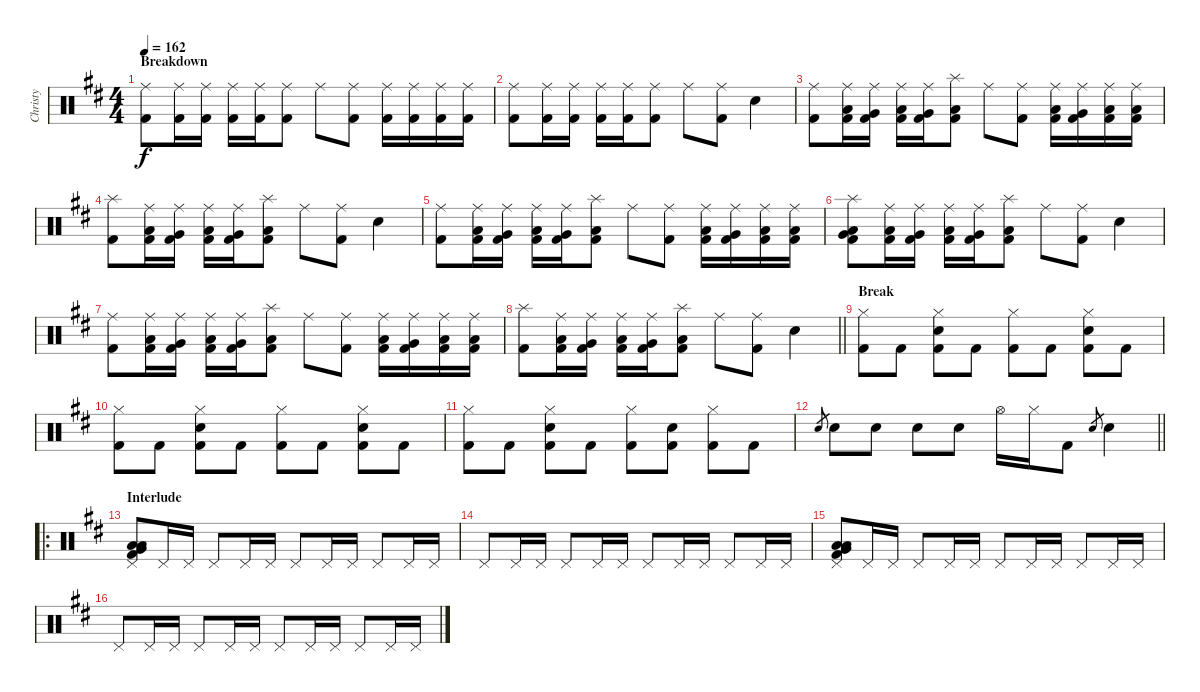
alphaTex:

\track ("Christy" "Christy") {instrument percussion}
\staff {score}
\articulation defaults
\ts (4 4)
\section ("" "Breakdown")
\tempo 162
\clef neutral
\ks d
("Ride (middle)" "Kick (hit) 2").8{dy f} ("Ride (middle)" "Kick (hit) 2").16 ("Ride (middle)" "Kick (hit) 2").16 ("Ride (middle)" "Kick (hit) 2").16 ("Ride (middle)" "Kick (hit) 2").16 ("Ride (middle)" "Kick (hit) 2").8 "Ride (middle)".8 ("Ride (middle)" "Kick (hit) 2").8 ("Ride (middle)" "Kick (hit) 2").16 ("Ride (middle)" "Kick (hit) 2").16 ("Ride (middle)" "Kick (hit) 2").16 ("Ride (middle)" "Kick (hit) 2").16 |
("Ride (middle)" "Kick (hit) 2").8 ("Ride (middle)" "Kick (hit) 2").16 ("Ride (middle)" "Kick (hit) 2").16 ("Ride (middle)" "Kick (hit) 2").16 ("Ride (middle)" "Kick (hit) 2").16 ("Ride (middle)" "Kick (hit) 2").8 "Ride (middle)".8 ("Ride (middle)" "Kick (hit) 2").8 "Snare (hit) 2".4 |
("Ride (middle)" "Kick (hit) 2").8 ("Ride (middle)" "Low Tom (hit)" "Kick (hit) 2").16 ("Ride (middle)" "Very Low Tom (hit)" "Kick (hit) 2").16 ("Ride (middle)" "Low Tom (hit)" "Kick (hit) 2").16 ("Ride (middle)" "Very Low Tom (hit)" "Kick (hit) 2").16 ("Splash (hit)" "Low Floor Tom (hit)" "Kick (hit) 2").8 "Ride (middle)".8 ("Ride (middle)" "Kick (hit) 2").8 ("Ride (middle)" "Low Tom (hit)" "Kick (hit) 2").16 ("Ride (middle)" "Very Low Tom (hit)" "Kick (hit) 2").16 ("Ride (middle)" "Low Tom (hit)" "Kick (hit) 2").16 ("Ride (middle)" "Low Floor Tom (hit)" "Kick (hit) 2").16 |
("Splash (hit)" "Kick (hit) 2").8 ("Ride (middle)" "Low Tom (hit)" "Kick (hit) 2").16 ("Ride (middle)" "Very Low Tom (hit)" "Kick (hit) 2").16 ("Ride (middle)" "Low Tom (hit)" "Kick (hit) 2").16 ("Ride (middle)" "Very Low Tom (hit)" "Kick (hit) 2").16 ("Splash (hit)" "Low Floor Tom (hit)" "Kick (hit) 2").8 "Ride (middle)".8 ("Ride (middle)" "Kick (hit) 2").8 "Snare (hit) 2".4 |
("Ride (middle)" "Kick (hit) 2").8 ("Ride (middle)" "Low Tom (hit)" "Kick (hit) 2").16 ("Ride (middle)" "Very Low Tom (hit)" "Kick (hit) 2").16 ("Ride (middle)" "Low Tom (hit)" "Kick (hit) 2").16 ("Ride (middle)" "Very Low Tom (hit)" "Kick (hit) 2").16 ("Splash (hit)" "Low Floor Tom (hit)" "Kick (hit) 2").8 "Ride (middle)".8 ("Ride (middle)" "Kick (hit) 2").8 ("Ride (middle)" "Low Tom (hit)" "Kick (hit) 2").16 ("Ride (middle)" "Very Low Tom (hit)" "Kick (hit) 2").16 ("Ride (middle)" "Low Tom (hit)" "Kick (hit) 2").16 ("Ride (middle)" "Low Floor Tom (hit)" "Kick (hit) 2").16 |
("Splash (hit)" "Very Low Tom (hit)" "Low Tom (hit)" "Kick (hit) 2").8 ("Ride (middle)" "Low Tom (hit)" "Kick (hit) 2").16 ("Ride (middle)" "Very Low Tom (hit)" "Kick (hit) 2").16 ("Ride (middle)" "Low Tom (hit)" "Kick (hit) 2").16 ("Ride (middle)" "Very Low Tom (hit)" "Kick (hit) 2").16 ("Splash (hit)" "Low Floor Tom (hit)" "Kick (hit) 2").8 "Ride (middle)".8 ("Ride (middle)" "Kick (hit) 2").8 "Snare (hit) 2".4 |
("Ride (middle)" "Kick (hit) 2").8 ("Ride (middle)" "Low Tom (hit)" "Kick (hit) 2").16 ("Ride (middle)" "Very Low Tom (hit)" "Kick (hit) 2").16 ("Ride (middle)" "Low Tom (hit)" "Kick (hit) 2").16 ("Ride (middle)" "Very Low Tom (hit)" "Kick (hit) 2").16 ("Splash (hit)" "Low Floor Tom (hit)" "Kick (hit) 2").8 "Ride (middle)".8 ("Ride (middle)" "Kick (hit) 2").8 ("Ride (middle)" "Low Tom (hit)" "Kick (hit) 2").16 ("Ride (middle)" "Very Low Tom (hit)" "Kick (hit) 2").16 ("Ride (middle)" "Low Tom (hit)" "Kick (hit) 2").16 ("Ride (middle)" "Low Floor Tom (hit)" "Kick (hit) 2").16 |
\barLineRight lightlight
("Splash (hit)" "Kick (hit) 2").8 ("Ride (middle)" "Low Tom (hit)" "Kick (hit) 2").16 ("Ride (middle)" "Very Low Tom (hit)" "Kick (hit) 2").16 ("Ride (middle)" "Low Tom (hit)" "Kick (hit) 2").16 ("Ride (middle)" "Very Low Tom (hit)" "Kick (hit) 2").16 ("Splash (hit)" "Low Floor Tom (hit)" "Kick (hit) 2").8 "Ride (middle)".8 ("Ride (middle)" "Kick (hit) 2").8 "Snare (hit) 2".4 |
\section ("" "Break")
("Hi-Hat (closed)" "Kick (hit) 2").8 "Kick (hit) 2".8 ("Hi-Hat (closed)" "Snare (hit) 2" "Kick (hit) 2").8 "Kick (hit) 2".8 ("Hi-Hat (closed)" "Kick (hit) 2").8 "Kick (hit) 2".8 ("Hi-Hat (closed)" "Snare (hit) 2" "Kick (hit) 2").8 "Kick (hit) 2".8 |
("Hi-Hat (closed)" "Kick (hit) 2").8 "Kick (hit) 2".8 ("Hi-Hat (closed)" "Snare (hit) 2" "Kick (hit) 2").8 "Kick (hit) 2".8 ("Hi-Hat (closed)" "Kick (hit) 2").8 "Kick (hit) 2".8 ("Hi-Hat (closed)" "Snare (hit) 2" "Kick (hit) 2").8 "Kick (hit) 2".8 |
("Hi-Hat (closed)" "Kick (hit) 2").8 "Kick (hit) 2".8 ("Hi-Hat (closed)" "Snare (hit) 2" "Kick (hit) 2").8 "Kick (hit) 2".8 ("Hi-Hat (closed)" "Kick (hit) 2").8 ("Snare (hit) 2" "Kick (hit) 2").8 ("Hi-Hat (closed)" "Kick (hit) 2").8 "Kick (hit) 2".8 |
\barLineRight lightlight "Snare (hit) 2".8{gr} "Snare (hit) 2".8 "Snare (hit) 2".8 "Snare (hit) 2".8 "Snare (hit) 2".8 "Hi-Hat (open)".16 "Hi-Hat (closed)".16 "Kick (hit) 2".8 "Snare (hit) 2".8{gr} "Snare (hit) 2".4
|
\ro
\section ("" "Interlude")
("Pedal Hi-Hat (hit)" "Low Floor Tom (hit)" "Very Low Tom (hit)" "Low Tom (hit)" "Kick (hit) 2").8 "Pedal Hi-Hat (hit)".16 "Pedal Hi-Hat (hit)".16 "Pedal Hi-Hat (hit)".8 "Pedal Hi-Hat (hit)".16 "Pedal Hi-Hat (hit)".16 "Pedal Hi-Hat (hit)".8 "Pedal Hi-Hat (hit)".16 "Pedal Hi-Hat (hit)".16 "Pedal Hi-Hat (hit)".8 "Pedal Hi-Hat (hit)".16 "Pedal Hi-Hat (hit)".16 |
"Pedal Hi-Hat (hit)".8 "Pedal Hi-Hat (hit)".16 "Pedal Hi-Hat (hit)".16 "Pedal Hi-Hat (hit)".8 "Pedal Hi-Hat (hit)".16 "Pedal Hi-Hat (hit)".16 "Pedal Hi-Hat (hit)".8 "Pedal Hi-Hat (hit)".16 "Pedal Hi-Hat (hit)".16 "Pedal Hi-Hat (hit)".8 "Pedal Hi-Hat (hit)".16 "Pedal Hi-Hat (hit)".16 |
("Pedal Hi-Hat (hit)" "Low Floor Tom (hit)" "Very Low Tom (hit)" "Low Tom (hit)" "Kick (hit) 2").8 "Pedal Hi-Hat (hit)".16 "Pedal Hi-Hat (hit)".16 "Pedal Hi-Hat (hit)".8 "Pedal Hi-Hat (hit)".16 "Pedal Hi-Hat (hit)".16 "Pedal Hi-Hat (hit)".8 "Pedal Hi-Hat (hit)".16 "Pedal Hi-Hat (hit)".16 "Pedal Hi-Hat (hit)".8 "Pedal Hi-Hat (hit)".16 "Pedal Hi-Hat (hit)".16 |
"Pedal Hi-Hat (hit)".8 "Pedal Hi-Hat (hit)".16 "Pedal Hi-Hat (hit)".16 "Pedal Hi-Hat (hit)".8 "Pedal Hi-Hat (hit)".16 "Pedal Hi-Hat (hit)".16 "Pedal Hi-Hat (hit)".8 "Pedal Hi-Hat (hit)".16 "Pedal Hi-Hat (hit)".16 "Pedal Hi-Hat (hit)".8 "Pedal Hi-Hat (hit)".16 "Pedal Hi-Hat (hit)".16
